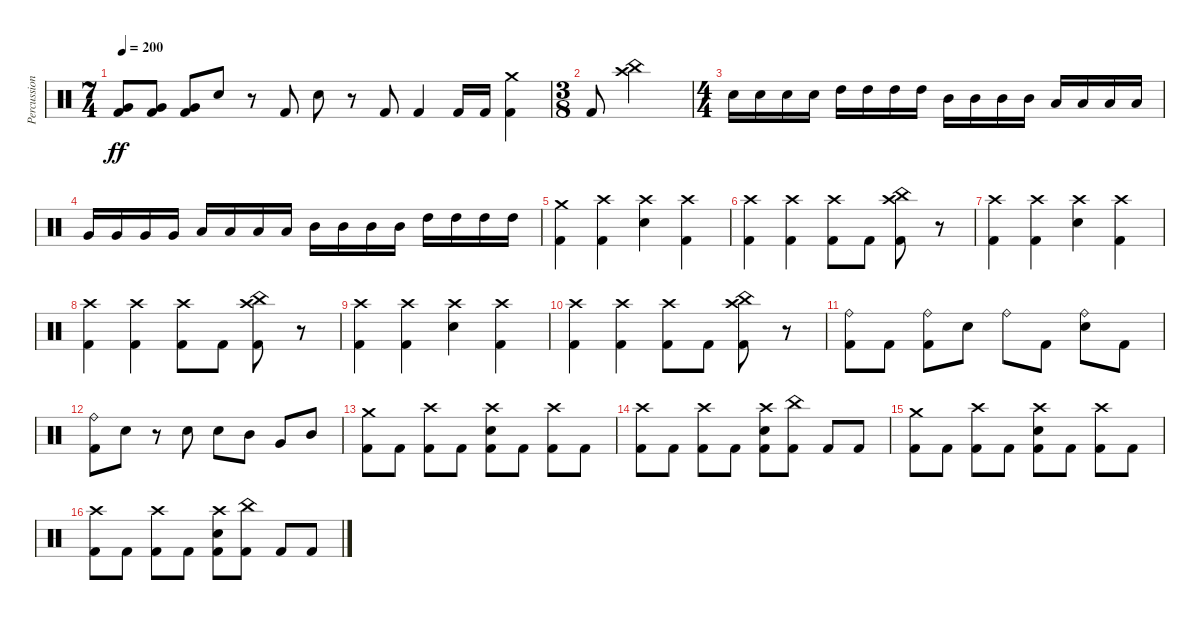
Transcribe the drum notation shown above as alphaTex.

\track ("Percussion" "Percussion") {instrument percussion}
\staff {score}
\articulation defaults
\ts (7 4)
\tempo 200
\clef neutral
\ks c
("Very Low Tom (hit)" "Kick (hit) 2").8{dy ff} ("Very Low Tom (hit)" "Kick (hit) 2").8 ("Very Low Tom (hit)" "Kick (hit) 2").8 "Electric Snare (hit)".8 r.8 "Kick (hit) 2".8 "Electric Snare (hit)".8 r.8 "Kick (hit) 2".8 "Kick (hit) 2".4 "Kick (hit) 2".16 "Kick (hit) 2".16 ("Crash medium (hit)" "Kick (hit) 2").4 |
\ts (3 8)
"Kick (hit) 2".8 ("China (hit)" "Crash high (hit)").4 |
\ts (4 4)
"Electric Snare (hit)".16 "Electric Snare (hit)".16 "Electric Snare (hit)".16 "Electric Snare (hit)".16 "High Tom (hit)".16 "High Tom (hit)".16 "High Tom (hit)".16 "High Tom (hit)".16 "Mid Tom (hit)".16 "Mid Tom (hit)".16 "Mid Tom (hit)".16 "Mid Tom (hit)".16 "Low Tom (hit)".16 "Low Tom (hit)".16 "Low Tom (hit)".16 "Low Tom (hit)".16 |
"Very Low Tom (hit)".16 "Very Low Tom (hit)".16 "Very Low Tom (hit)".16 "Very Low Tom (hit)".16 "Low Tom (hit)".16 "Low Tom (hit)".16 "Low Tom (hit)".16 "Low Tom (hit)".16 "Mid Tom (hit)".16 "Mid Tom (hit)".16 "Mid Tom (hit)".16 "Mid Tom (hit)".16 "High Tom (hit)".16 "High Tom (hit)".16 "High Tom (hit)".16 "High Tom (hit)".16 |
("Crash medium (hit)" "Kick (hit) 2").4 ("Crash high (hit)" "Kick (hit) 2").4 ("Crash high (hit)" "Electric Snare (hit)").4 ("Crash high (hit)" "Kick (hit) 2").4 |
("Crash high (hit)" "Kick (hit) 2").4 ("Crash high (hit)" "Kick (hit) 2").4 ("Crash high (hit)" "Kick (hit) 2").8 "Kick (hit) 2".8 ("China (hit)" "Crash high (hit)" "Kick (hit) 2").8 r.8 |
("Crash high (hit)" "Kick (hit) 2").4 ("Crash high (hit)" "Kick (hit) 2").4 ("Crash high (hit)" "Electric Snare (hit)").4 ("Crash high (hit)" "Kick (hit) 2").4 |
("Crash high (hit)" "Kick (hit) 2").4 ("Crash high (hit)" "Kick (hit) 2").4 ("Crash high (hit)" "Kick (hit) 2").8 "Kick (hit) 2".8 ("China (hit)" "Crash high (hit)" "Kick (hit) 2").8 r.8 |
("Crash high (hit)" "Kick (hit) 2").4 ("Crash high (hit)" "Kick (hit) 2").4 ("Crash high (hit)" "Electric Snare (hit)").4 ("Crash high (hit)" "Kick (hit) 2").4 |
("Crash high (hit)" "Kick (hit) 2").4 ("Crash high (hit)" "Kick (hit) 2").4 ("Crash high (hit)" "Kick (hit) 2").8 "Kick (hit) 2".8 ("China (hit)" "Crash high (hit)" "Kick (hit) 2").8 r.8 |
("Ride (bell)" "Kick (hit) 2").8 "Kick (hit) 2".8 ("Ride (bell)" "Kick (hit) 2").8 "Electric Snare (hit)".8 "Ride (bell)".8 "Kick (hit) 2".8 ("Ride (bell)" "Electric Snare (hit)").8 "Kick (hit) 2".8 |
("Ride (bell)" "Kick (hit) 2").8 "Electric Snare (hit)".8 r.8 "Electric Snare (hit)".8 "Electric Snare (hit)".8 "Mid Tom (hit)".8 "Very Low Tom (hit)".8 "Mid Tom (hit)".8 |
("Crash medium (hit)" "Kick (hit) 2").8 "Kick (hit) 2".8 ("Crash high (hit)" "Kick (hit) 2").8 "Kick (hit) 2".8 ("Crash high (hit)" "Electric Snare (hit)" "Kick (hit) 2").8 "Kick (hit) 2".8 ("Crash high (hit)" "Kick (hit) 2").8 "Kick (hit) 2".8 |
("Crash high (hit)" "Kick (hit) 2").8 "Kick (hit) 2".8 ("Crash high (hit)" "Kick (hit) 2").8 "Kick (hit) 2".8 ("Crash high (hit)" "Electric Snare (hit)" "Kick (hit) 2").8 ("China (hit)" "Kick (hit) 2").8 "Kick (hit) 2".8 "Kick (hit) 2".8 |
("Crash medium (hit)" "Kick (hit) 2").8 "Kick (hit) 2".8 ("Crash high (hit)" "Kick (hit) 2").8 "Kick (hit) 2".8 ("Crash high (hit)" "Electric Snare (hit)" "Kick (hit) 2").8 "Kick (hit) 2".8 ("Crash high (hit)" "Kick (hit) 2").8 "Kick (hit) 2".8 |
("Crash high (hit)" "Kick (hit) 2").8 "Kick (hit) 2".8 ("Crash high (hit)" "Kick (hit) 2").8 "Kick (hit) 2".8 ("Crash high (hit)" "Electric Snare (hit)" "Kick (hit) 2").8 ("China (hit)" "Kick (hit) 2").8 "Kick (hit) 2".8 "Kick (hit) 2".8
